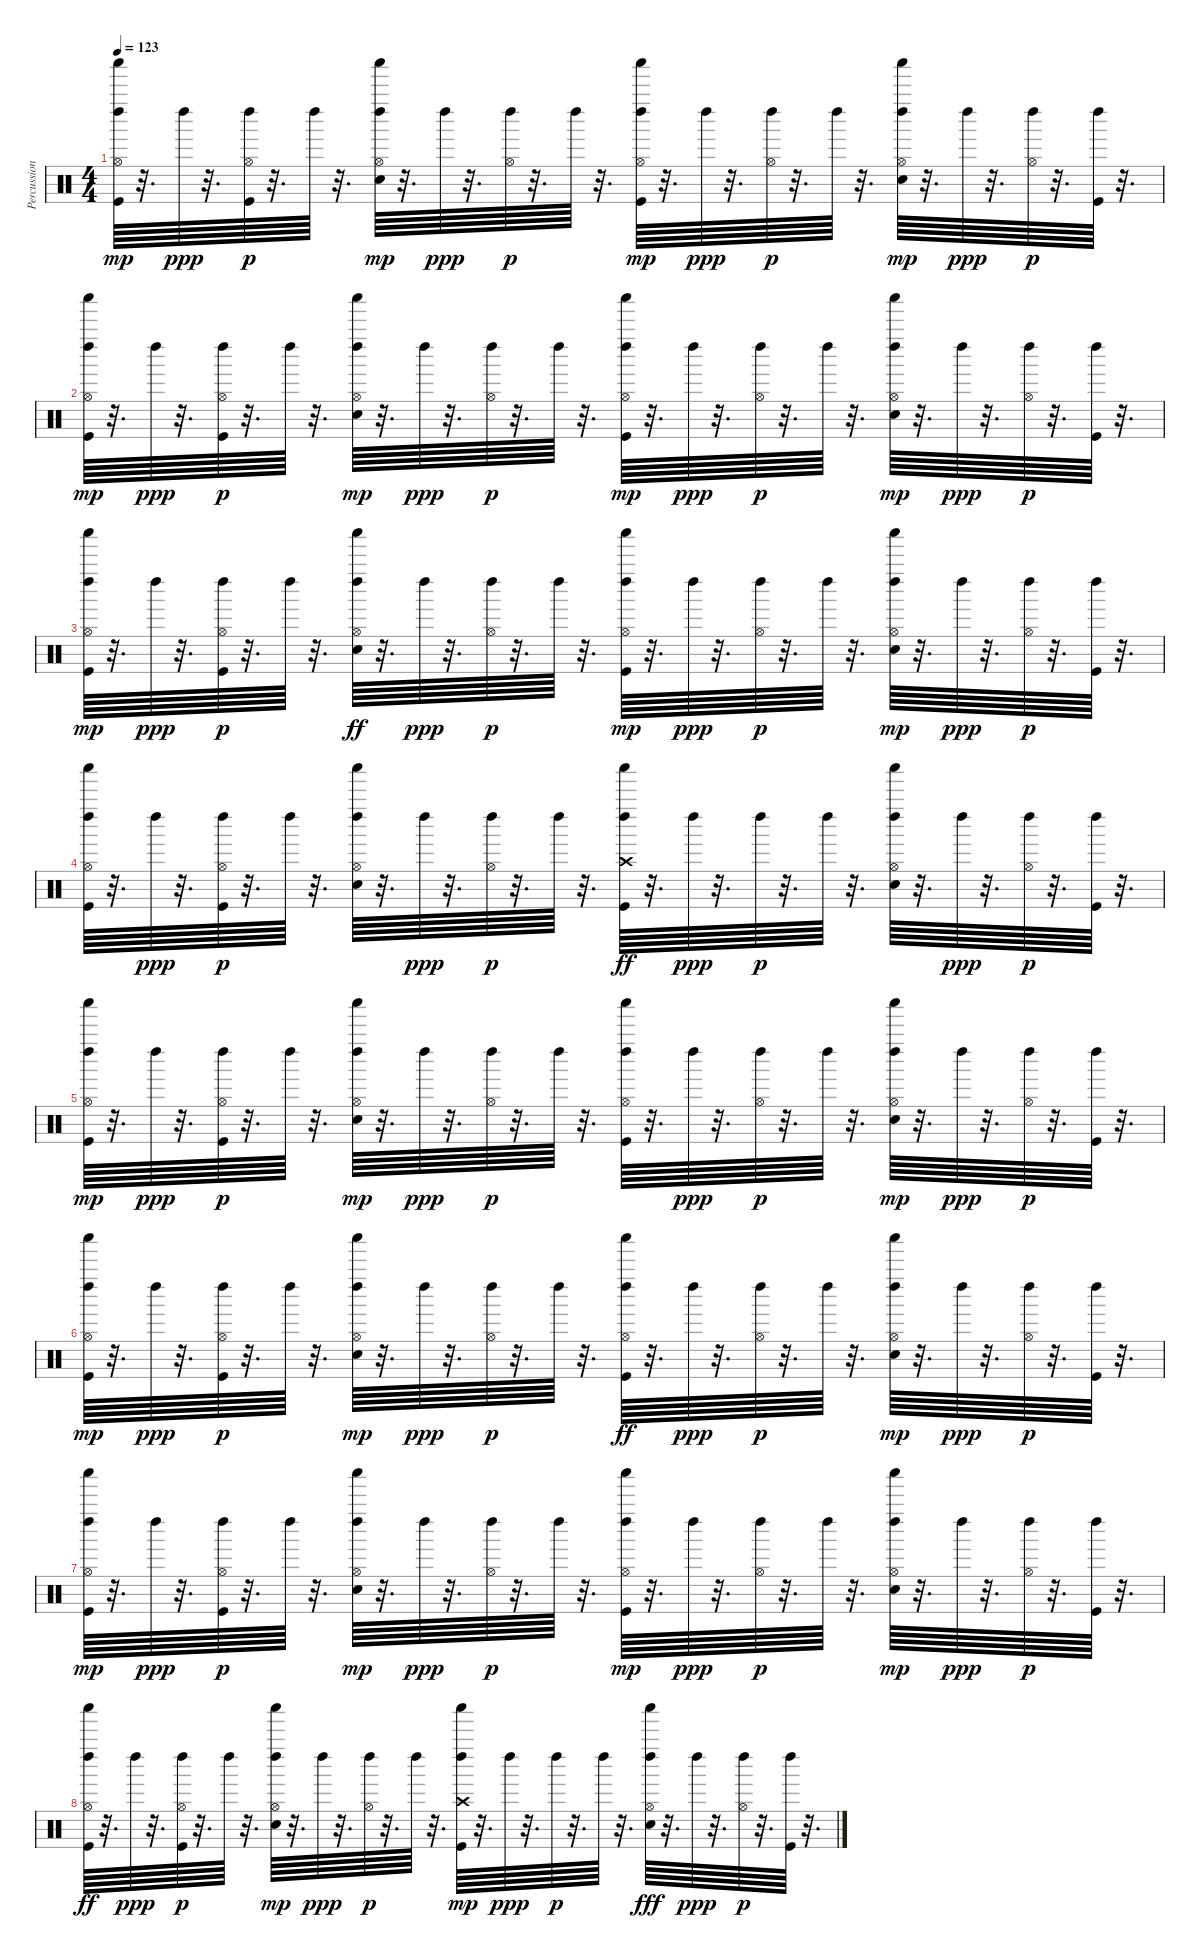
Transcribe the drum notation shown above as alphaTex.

\track ("Percussion" "Percussion") {instrument percussion}
\staff {score}
\articulation defaults
\ts (4 4)
\tempo 123
\clef neutral
\ks c
("Hi-Hat (open)" "Kick (hit)" "Shaker (hit)" "Left Maraca (hit)").64{dy mp} r.32{d} "Left Maraca (hit)".64{dy ppp} r.32{d} ("Left Maraca (hit)" "Kick (hit)" "Hi-Hat (open)").64{dy p} r.32{d} "Left Maraca (hit)".64 r.32{d} ("Electric Snare (hit)" "Hi-Hat (open)" "Left Maraca (hit)" "Shaker (hit)").64{dy mp} r.32{d} "Left Maraca (hit)".64{dy ppp} r.32{d} ("Hi-Hat (open)" "Left Maraca (hit)").64{dy p} r.32{d} "Left Maraca (hit)".64 r.32{d} ("Kick (hit)" "Hi-Hat (open)" "Left Maraca (hit)" "Shaker (hit)").64{dy mp} r.32{d} "Left Maraca (hit)".64{dy ppp} r.32{d} ("Hi-Hat (open)" "Left Maraca (hit)").64{dy p} r.32{d} "Left Maraca (hit)".64 r.32{d} ("Hi-Hat (open)" "Electric Snare (hit)" "Shaker (hit)" "Left Maraca (hit)").64{dy mp} r.32{d} "Left Maraca (hit)".64{dy ppp} r.32{d} ("Hi-Hat (open)" "Left Maraca (hit)").64{dy p} r.32{d} ("Kick (hit)" "Left Maraca (hit)").64 r.32{d} |
("Kick (hit)" "Hi-Hat (open)" "Left Maraca (hit)" "Shaker (hit)").64{dy mp} r.32{d} "Left Maraca (hit)".64{dy ppp} r.32{d} ("Kick (hit)" "Hi-Hat (open)" "Left Maraca (hit)").64{dy p} r.32{d} "Left Maraca (hit)".64 r.32{d} ("Electric Snare (hit)" "Hi-Hat (open)" "Left Maraca (hit)" "Shaker (hit)").64{dy mp} r.32{d} "Left Maraca (hit)".64{dy ppp} r.32{d} ("Hi-Hat (open)" "Left Maraca (hit)").64{dy p} r.32{d} "Left Maraca (hit)".64 r.32{d} ("Kick (hit)" "Left Maraca (hit)" "Shaker (hit)" "Hi-Hat (open)").64{dy mp} r.32{d} "Left Maraca (hit)".64{dy ppp} r.32{d} ("Hi-Hat (open)" "Left Maraca (hit)").64{dy p} r.32{d} "Left Maraca (hit)".64 r.32{d} ("Electric Snare (hit)" "Hi-Hat (open)" "Left Maraca (hit)" "Shaker (hit)").64{dy mp} r.32{d} "Left Maraca (hit)".64{dy ppp} r.32{d} ("Hi-Hat (open)" "Left Maraca (hit)").64{dy p} r.32{d} ("Kick (hit)" "Left Maraca (hit)").64 r.32{d} |
("Shaker (hit)" "Hi-Hat (open)" "Kick (hit)" "Left Maraca (hit)").64{dy mp} r.32{d} "Left Maraca (hit)".64{dy ppp} r.32{d} ("Kick (hit)" "Hi-Hat (open)" "Left Maraca (hit)").64{dy p} r.32{d} "Left Maraca (hit)".64 r.32{d} ("Hi-Hat (open)" "Shaker (hit)" "Left Maraca (hit)" "Electric Snare (hit)").64{dy ff} r.32{d} "Left Maraca (hit)".64{dy ppp} r.32{d} ("Hi-Hat (open)" "Left Maraca (hit)").64{dy p} r.32{d} "Left Maraca (hit)".64 r.32{d} ("Kick (hit)" "Hi-Hat (open)" "Left Maraca (hit)" "Shaker (hit)").64{dy mp} r.32{d} "Left Maraca (hit)".64{dy ppp} r.32{d} ("Hi-Hat (open)" "Left Maraca (hit)").64{dy p} r.32{d} "Left Maraca (hit)".64 r.32{d} ("Hi-Hat (open)" "Electric Snare (hit)" "Shaker (hit)" "Left Maraca (hit)").64{dy mp} r.32{d} "Left Maraca (hit)".64{dy ppp} r.32{d} ("Hi-Hat (open)" "Left Maraca (hit)").64{dy p} r.32{d} ("Kick (hit)" "Left Maraca (hit)").64 r.32{d} |
("Left Maraca (hit)" "Shaker (hit)" "Kick (hit)" "Hi-Hat (open)").64 r.32{d} "Left Maraca (hit)".64{dy ppp} r.32{d} ("Left Maraca (hit)" "Kick (hit)" "Hi-Hat (open)").64{dy p} r.32{d} "Left Maraca (hit)".64 r.32{d} ("Shaker (hit)" "Electric Snare (hit)" "Left Maraca (hit)" "Hi-Hat (open)").64 r.32{d} "Left Maraca (hit)".64{dy ppp} r.32{d} ("Hi-Hat (open)" "Left Maraca (hit)").64{dy p} r.32{d} "Left Maraca (hit)".64 r.32{d} ("Left Maraca (hit)" "Crash high (hit)" "Shaker (hit)" "Kick (hit)").64{dy ff} r.32{d} "Left Maraca (hit)".64{dy ppp} r.32{d} "Left Maraca (hit)".64{dy p} r.32{d} "Left Maraca (hit)".64 r.32{d} ("Left Maraca (hit)" "Shaker (hit)" "Electric Snare (hit)" "Hi-Hat (open)").64 r.32{d} "Left Maraca (hit)".64{dy ppp} r.32{d} ("Hi-Hat (open)" "Left Maraca (hit)").64{dy p} r.32{d} ("Kick (hit)" "Left Maraca (hit)").64 r.32{d} |
("Hi-Hat (open)" "Kick (hit)" "Shaker (hit)" "Left Maraca (hit)").64{dy mp} r.32{d} "Left Maraca (hit)".64{dy ppp} r.32{d} ("Kick (hit)" "Hi-Hat (open)" "Left Maraca (hit)").64{dy p} r.32{d} "Left Maraca (hit)".64 r.32{d} ("Electric Snare (hit)" "Shaker (hit)" "Hi-Hat (open)" "Left Maraca (hit)").64{dy mp} r.32{d} "Left Maraca (hit)".64{dy ppp} r.32{d} ("Hi-Hat (open)" "Left Maraca (hit)").64{dy p} r.32{d} "Left Maraca (hit)".64 r.32{d} ("Left Maraca (hit)" "Shaker (hit)" "Kick (hit)" "Hi-Hat (open)").64 r.32{d} "Left Maraca (hit)".64{dy ppp} r.32{d} ("Hi-Hat (open)" "Left Maraca (hit)").64{dy p} r.32{d} "Left Maraca (hit)".64 r.32{d} ("Electric Snare (hit)" "Hi-Hat (open)" "Left Maraca (hit)" "Shaker (hit)").64{dy mp} r.32{d} "Left Maraca (hit)".64{dy ppp} r.32{d} ("Hi-Hat (open)" "Left Maraca (hit)").64{dy p} r.32{d} ("Kick (hit)" "Left Maraca (hit)").64 r.32{d} |
("Kick (hit)" "Hi-Hat (open)" "Left Maraca (hit)" "Shaker (hit)").64{dy mp} r.32{d} "Left Maraca (hit)".64{dy ppp} r.32{d} ("Kick (hit)" "Hi-Hat (open)" "Left Maraca (hit)").64{dy p} r.32{d} "Left Maraca (hit)".64 r.32{d} ("Electric Snare (hit)" "Hi-Hat (open)" "Left Maraca (hit)" "Shaker (hit)").64{dy mp} r.32{d} "Left Maraca (hit)".64{dy ppp} r.32{d} ("Hi-Hat (open)" "Left Maraca (hit)").64{dy p} r.32{d} "Left Maraca (hit)".64 r.32{d} ("Shaker (hit)" "Left Maraca (hit)" "Hi-Hat (open)" "Kick (hit)").64{dy ff} r.32{d} "Left Maraca (hit)".64{dy ppp} r.32{d} ("Hi-Hat (open)" "Left Maraca (hit)").64{dy p} r.32{d} "Left Maraca (hit)".64 r.32{d} ("Electric Snare (hit)" "Hi-Hat (open)" "Left Maraca (hit)" "Shaker (hit)").64{dy mp} r.32{d} "Left Maraca (hit)".64{dy ppp} r.32{d} ("Hi-Hat (open)" "Left Maraca (hit)").64{dy p} r.32{d} ("Kick (hit)" "Left Maraca (hit)").64 r.32{d} |
("Kick (hit)" "Shaker (hit)" "Hi-Hat (open)" "Left Maraca (hit)").64{dy mp} r.32{d} "Left Maraca (hit)".64{dy ppp} r.32{d} ("Kick (hit)" "Hi-Hat (open)" "Left Maraca (hit)").64{dy p} r.32{d} "Left Maraca (hit)".64 r.32{d} ("Electric Snare (hit)" "Hi-Hat (open)" "Left Maraca (hit)" "Shaker (hit)").64{dy mp} r.32{d} "Left Maraca (hit)".64{dy ppp} r.32{d} ("Hi-Hat (open)" "Left Maraca (hit)").64{dy p} r.32{d} "Left Maraca (hit)".64 r.32{d} ("Kick (hit)" "Hi-Hat (open)" "Left Maraca (hit)" "Shaker (hit)").64{dy mp} r.32{d} "Left Maraca (hit)".64{dy ppp} r.32{d} ("Hi-Hat (open)" "Left Maraca (hit)").64{dy p} r.32{d} "Left Maraca (hit)".64 r.32{d} ("Electric Snare (hit)" "Hi-Hat (open)" "Left Maraca (hit)" "Shaker (hit)").64{dy mp} r.32{d} "Left Maraca (hit)".64{dy ppp} r.32{d} ("Hi-Hat (open)" "Left Maraca (hit)").64{dy p} r.32{d} ("Kick (hit)" "Left Maraca (hit)").64 r.32{d} |
("Shaker (hit)" "Left Maraca (hit)" "Hi-Hat (open)" "Kick (hit)").64{dy ff} r.32{d} "Left Maraca (hit)".64{dy ppp} r.32{d} ("Left Maraca (hit)" "Kick (hit)" "Hi-Hat (open)").64{dy p} r.32{d} "Left Maraca (hit)".64 r.32{d} ("Electric Snare (hit)" "Hi-Hat (open)" "Left Maraca (hit)" "Shaker (hit)").64{dy mp} r.32{d} "Left Maraca (hit)".64{dy ppp} r.32{d} ("Hi-Hat (open)" "Left Maraca (hit)").64{dy p} r.32{d} "Left Maraca (hit)".64 r.32{d} ("Shaker (hit)" "Crash high (hit)" "Kick (hit)" "Left Maraca (hit)").64{dy mp} r.32{d} "Left Maraca (hit)".64{dy ppp} r.32{d} "Left Maraca (hit)".64{dy p} r.32{d} "Left Maraca (hit)".64 r.32{d} ("Shaker (hit)" "Left Maraca (hit)" "Hi-Hat (open)" "Electric Snare (hit)").64{dy fff} r.32{d} "Left Maraca (hit)".64{dy ppp} r.32{d} ("Hi-Hat (open)" "Left Maraca (hit)").64{dy p} r.32{d} ("Kick (hit)" "Left Maraca (hit)").64 r.32{d}
